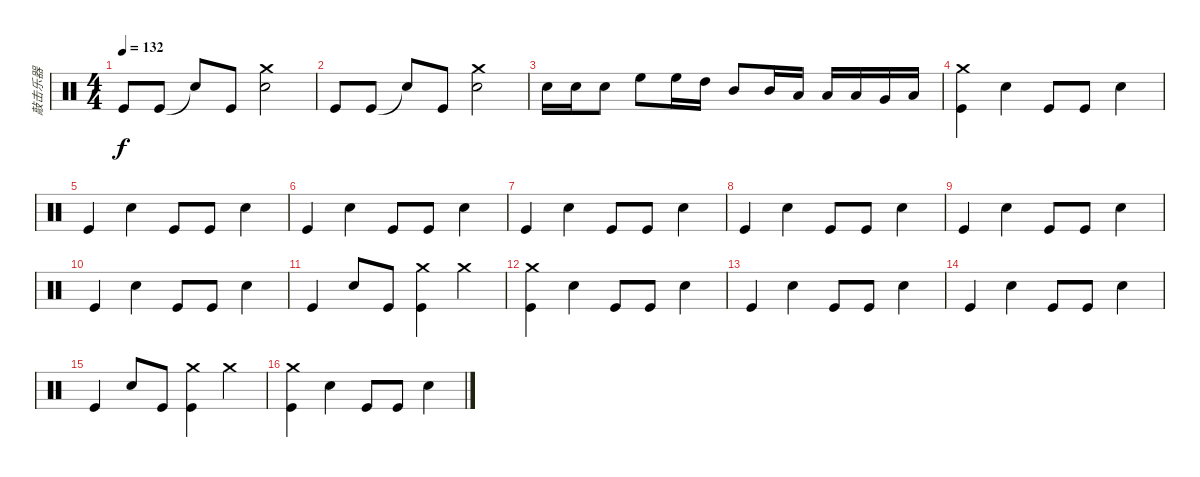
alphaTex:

\track ("敲击乐器" "敲击乐器") {instrument percussion}
\staff {score}
\articulation defaults
\ts (4 4)
\tempo 132
\clef neutral
\ks c "Kick (hit)".8{dy f} "Kick (hit)".8 "Snare (hit)"{t}.8 "Kick (hit)".8
("Crash medium (hit)" "Snare (hit) 2").2 |
"Kick (hit)".8 "Kick (hit)".8 "Snare (hit)"{t}.8 "Kick (hit)".8 ("Crash medium (hit)" "Snare (hit) 2").2 |
"Snare (hit) 2".16 "Snare (hit) 2".16 "Snare (hit) 2".8 "High Floor Tom (hit)".8 "High Floor Tom (hit)".16 "High Tom (hit)".16 "Mid Tom (hit)".8 "Mid Tom (hit)".16 "Low Tom (hit)".16 "Low Tom (hit)".16 "Low Tom (hit)".16 "Very Low Tom (hit)".16 "Low Floor Tom (hit)".16 |
("Crash medium (hit)" "Kick (hit)").4 "Snare (hit) 2".4 "Kick (hit)".8 "Kick (hit)".8 "Snare (hit) 2".4 |
"Kick (hit)".4 "Snare (hit) 2".4 "Kick (hit)".8 "Kick (hit)".8 "Snare (hit) 2".4 |
"Kick (hit)".4 "Snare (hit) 2".4 "Kick (hit)".8 "Kick (hit)".8 "Snare (hit) 2".4 |
"Kick (hit)".4 "Snare (hit) 2".4 "Kick (hit)".8 "Kick (hit)".8 "Snare (hit) 2".4 |
"Kick (hit)".4 "Snare (hit) 2".4 "Kick (hit)".8 "Kick (hit)".8 "Snare (hit) 2".4 |
"Kick (hit)".4 "Snare (hit) 2".4 "Kick (hit)".8 "Kick (hit)".8 "Snare (hit) 2".4 |
"Kick (hit)".4 "Snare (hit) 2".4 "Kick (hit)".8 "Kick (hit)".8 "Snare (hit) 2".4 |
"Kick (hit)".4 "Snare (hit) 2".8 "Kick (hit)".8 ("Crash medium (hit)" "Kick (hit)").4 "Crash medium (hit)".4 |
("Crash medium (hit)" "Kick (hit)").4 "Snare (hit) 2".4 "Kick (hit)".8 "Kick (hit)".8 "Snare (hit) 2".4 |
"Kick (hit)".4 "Snare (hit) 2".4 "Kick (hit)".8 "Kick (hit)".8 "Snare (hit) 2".4 |
"Kick (hit)".4 "Snare (hit) 2".4 "Kick (hit)".8 "Kick (hit)".8 "Snare (hit) 2".4 |
"Kick (hit)".4 "Snare (hit) 2".8 "Kick (hit)".8 ("Crash medium (hit)" "Kick (hit)").4 "Crash medium (hit)".4 |
("Crash medium (hit)" "Kick (hit)").4 "Snare (hit) 2".4 "Kick (hit)".8 "Kick (hit)".8 "Snare (hit) 2".4
